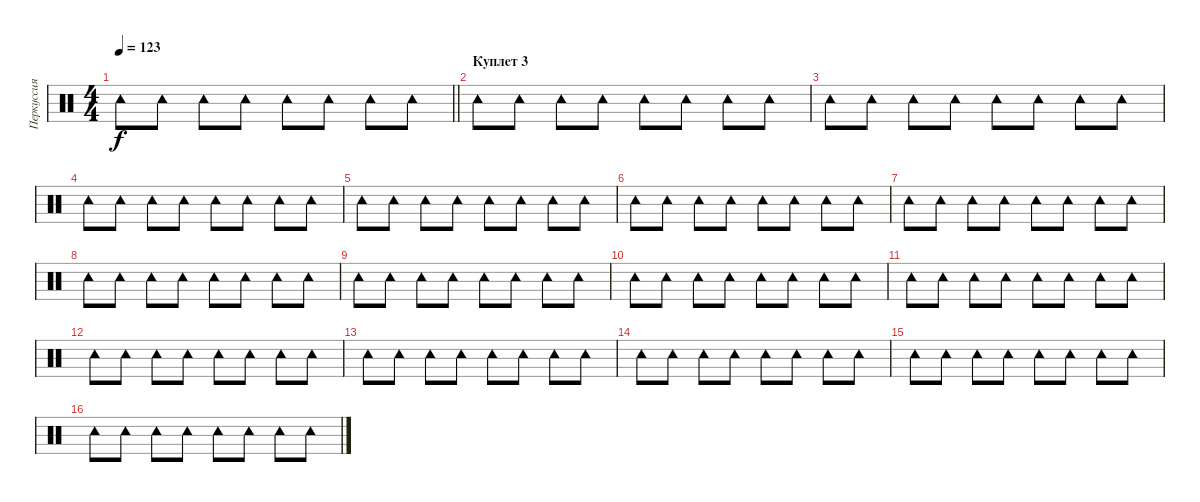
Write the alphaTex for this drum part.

\track ("Перкуссия 1" "Перкуссия ") {instrument percussion}
\staff {score}
\articulation defaults
\ts (4 4)
\tempo 123
\clef neutral
\barLineRight lightlight
\ks c "Tambourine (hit)".8{dy f} "Tambourine (hit)".8 "Tambourine (hit)".8 "Tambourine (hit)".8 "Tambourine (hit)".8 "Tambourine (hit)".8 "Tambourine (hit)".8 "Tambourine (hit)".8
|
\section ("" "Куплет 3")
"Tambourine (hit)".8 "Tambourine (hit)".8 "Tambourine (hit)".8 "Tambourine (hit)".8 "Tambourine (hit)".8 "Tambourine (hit)".8 "Tambourine (hit)".8 "Tambourine (hit)".8 |
"Tambourine (hit)".8 "Tambourine (hit)".8 "Tambourine (hit)".8 "Tambourine (hit)".8 "Tambourine (hit)".8 "Tambourine (hit)".8 "Tambourine (hit)".8 "Tambourine (hit)".8 |
"Tambourine (hit)".8 "Tambourine (hit)".8 "Tambourine (hit)".8 "Tambourine (hit)".8 "Tambourine (hit)".8 "Tambourine (hit)".8 "Tambourine (hit)".8 "Tambourine (hit)".8 |
"Tambourine (hit)".8 "Tambourine (hit)".8 "Tambourine (hit)".8 "Tambourine (hit)".8 "Tambourine (hit)".8 "Tambourine (hit)".8 "Tambourine (hit)".8 "Tambourine (hit)".8 |
"Tambourine (hit)".8 "Tambourine (hit)".8 "Tambourine (hit)".8 "Tambourine (hit)".8 "Tambourine (hit)".8 "Tambourine (hit)".8 "Tambourine (hit)".8 "Tambourine (hit)".8 |
"Tambourine (hit)".8 "Tambourine (hit)".8 "Tambourine (hit)".8 "Tambourine (hit)".8 "Tambourine (hit)".8 "Tambourine (hit)".8 "Tambourine (hit)".8 "Tambourine (hit)".8 |
"Tambourine (hit)".8 "Tambourine (hit)".8 "Tambourine (hit)".8 "Tambourine (hit)".8 "Tambourine (hit)".8 "Tambourine (hit)".8 "Tambourine (hit)".8 "Tambourine (hit)".8 |
"Tambourine (hit)".8 "Tambourine (hit)".8 "Tambourine (hit)".8 "Tambourine (hit)".8 "Tambourine (hit)".8 "Tambourine (hit)".8 "Tambourine (hit)".8 "Tambourine (hit)".8 |
"Tambourine (hit)".8 "Tambourine (hit)".8 "Tambourine (hit)".8 "Tambourine (hit)".8 "Tambourine (hit)".8 "Tambourine (hit)".8 "Tambourine (hit)".8 "Tambourine (hit)".8 |
"Tambourine (hit)".8 "Tambourine (hit)".8 "Tambourine (hit)".8 "Tambourine (hit)".8 "Tambourine (hit)".8 "Tambourine (hit)".8 "Tambourine (hit)".8 "Tambourine (hit)".8 |
"Tambourine (hit)".8 "Tambourine (hit)".8 "Tambourine (hit)".8 "Tambourine (hit)".8 "Tambourine (hit)".8 "Tambourine (hit)".8 "Tambourine (hit)".8 "Tambourine (hit)".8 |
"Tambourine (hit)".8 "Tambourine (hit)".8 "Tambourine (hit)".8 "Tambourine (hit)".8 "Tambourine (hit)".8 "Tambourine (hit)".8 "Tambourine (hit)".8 "Tambourine (hit)".8 |
"Tambourine (hit)".8 "Tambourine (hit)".8 "Tambourine (hit)".8 "Tambourine (hit)".8 "Tambourine (hit)".8 "Tambourine (hit)".8 "Tambourine (hit)".8 "Tambourine (hit)".8 |
"Tambourine (hit)".8 "Tambourine (hit)".8 "Tambourine (hit)".8 "Tambourine (hit)".8 "Tambourine (hit)".8 "Tambourine (hit)".8 "Tambourine (hit)".8 "Tambourine (hit)".8 |
"Tambourine (hit)".8 "Tambourine (hit)".8 "Tambourine (hit)".8 "Tambourine (hit)".8 "Tambourine (hit)".8 "Tambourine (hit)".8 "Tambourine (hit)".8 "Tambourine (hit)".8
